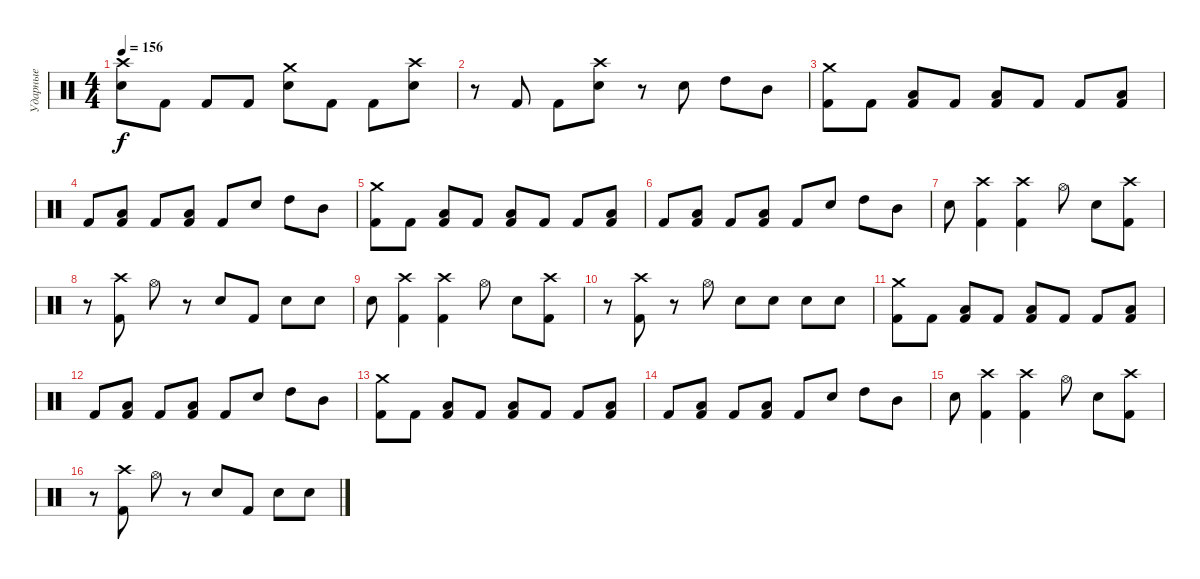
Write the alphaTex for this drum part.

\track ("Ударные" "Ударные") {instrument percussion}
\staff {score}
\articulation defaults
\ts (4 4)
\tempo 156
\clef neutral
\ks c
("Crash high (hit)" "Electric Snare (hit)").8{dy f} "Kick (hit) 2".8 "Kick (hit) 2".8 "Kick (hit) 2".8 ("Crash medium (hit)" "Electric Snare (hit)").8 "Kick (hit) 2".8 "Kick (hit) 2".8 ("Crash high (hit)" "Electric Snare (hit)").8 |
r.8 "Kick (hit) 2".8 "Kick (hit) 2".8 ("Crash high (hit)" "Electric Snare (hit)").8 r.8 "Electric Snare (hit)".8 "High Tom (hit)".8 "Mid Tom (hit)".8 |
("Crash medium (hit)" "Kick (hit) 2").8 "Kick (hit) 2".8 ("Low Tom (hit)" "Kick (hit) 2").8 "Kick (hit) 2".8 ("Low Tom (hit)" "Kick (hit) 2").8 "Kick (hit) 2".8 "Kick (hit) 2".8 ("Low Tom (hit)" "Kick (hit) 2").8 |
"Kick (hit) 2".8 ("Low Tom (hit)" "Kick (hit) 2").8 "Kick (hit) 2".8 ("Low Tom (hit)" "Kick (hit) 2").8 "Kick (hit) 2".8 "Electric Snare (hit)".8 "High Tom (hit)".8 "Mid Tom (hit)".8 |
("Crash medium (hit)" "Kick (hit) 2").8 "Kick (hit) 2".8 ("Low Tom (hit)" "Kick (hit) 2").8 "Kick (hit) 2".8 ("Low Tom (hit)" "Kick (hit) 2").8 "Kick (hit) 2".8 "Kick (hit) 2".8 ("Low Tom (hit)" "Kick (hit) 2").8 |
"Kick (hit) 2".8 ("Low Tom (hit)" "Kick (hit) 2").8 "Kick (hit) 2".8 ("Low Tom (hit)" "Kick (hit) 2").8 "Kick (hit) 2".8 "Electric Snare (hit)".8 "High Tom (hit)".8 "Mid Tom (hit)".8 |
"Electric Snare (hit)".8 ("Crash high (hit)" "Kick (hit) 2").4 ("Crash high (hit)" "Kick (hit) 2").4 "Hi-Hat (open)".8 "Electric Snare (hit)".8 ("Crash high (hit)" "Kick (hit) 2").8 |
r.8 ("Crash high (hit)" "Kick (hit) 2").8 "Hi-Hat (open)".8 r.8 "Electric Snare (hit)".8 "Kick (hit) 2".8 "Electric Snare (hit)".8 "Electric Snare (hit)".8 |
"Electric Snare (hit)".8 ("Crash high (hit)" "Kick (hit) 2").4 ("Crash high (hit)" "Kick (hit) 2").4 "Hi-Hat (open)".8 "Electric Snare (hit)".8 ("Crash high (hit)" "Kick (hit) 2").8 |
r.8 ("Crash high (hit)" "Kick (hit) 2").8 r.8 "Hi-Hat (open)".8 "Electric Snare (hit)".8 "Electric Snare (hit)".8 "Electric Snare (hit)".8 "Electric Snare (hit)".8 |
("Crash medium (hit)" "Kick (hit) 2").8 "Kick (hit) 2".8 ("Low Tom (hit)" "Kick (hit) 2").8 "Kick (hit) 2".8 ("Low Tom (hit)" "Kick (hit) 2").8 "Kick (hit) 2".8 "Kick (hit) 2".8 ("Low Tom (hit)" "Kick (hit) 2").8 |
"Kick (hit) 2".8 ("Low Tom (hit)" "Kick (hit) 2").8 "Kick (hit) 2".8 ("Low Tom (hit)" "Kick (hit) 2").8 "Kick (hit) 2".8 "Electric Snare (hit)".8 "High Tom (hit)".8 "Mid Tom (hit)".8 |
("Crash medium (hit)" "Kick (hit) 2").8 "Kick (hit) 2".8 ("Low Tom (hit)" "Kick (hit) 2").8 "Kick (hit) 2".8 ("Low Tom (hit)" "Kick (hit) 2").8 "Kick (hit) 2".8 "Kick (hit) 2".8 ("Low Tom (hit)" "Kick (hit) 2").8 |
"Kick (hit) 2".8 ("Low Tom (hit)" "Kick (hit) 2").8 "Kick (hit) 2".8 ("Low Tom (hit)" "Kick (hit) 2").8 "Kick (hit) 2".8 "Electric Snare (hit)".8 "High Tom (hit)".8 "Mid Tom (hit)".8 |
"Electric Snare (hit)".8 ("Crash high (hit)" "Kick (hit) 2").4 ("Crash high (hit)" "Kick (hit) 2").4 "Hi-Hat (open)".8 "Electric Snare (hit)".8 ("Crash high (hit)" "Kick (hit) 2").8 |
r.8 ("Crash high (hit)" "Kick (hit) 2").8 "Hi-Hat (open)".8 r.8 "Electric Snare (hit)".8 "Kick (hit) 2".8 "Electric Snare (hit)".8 "Electric Snare (hit)".8
